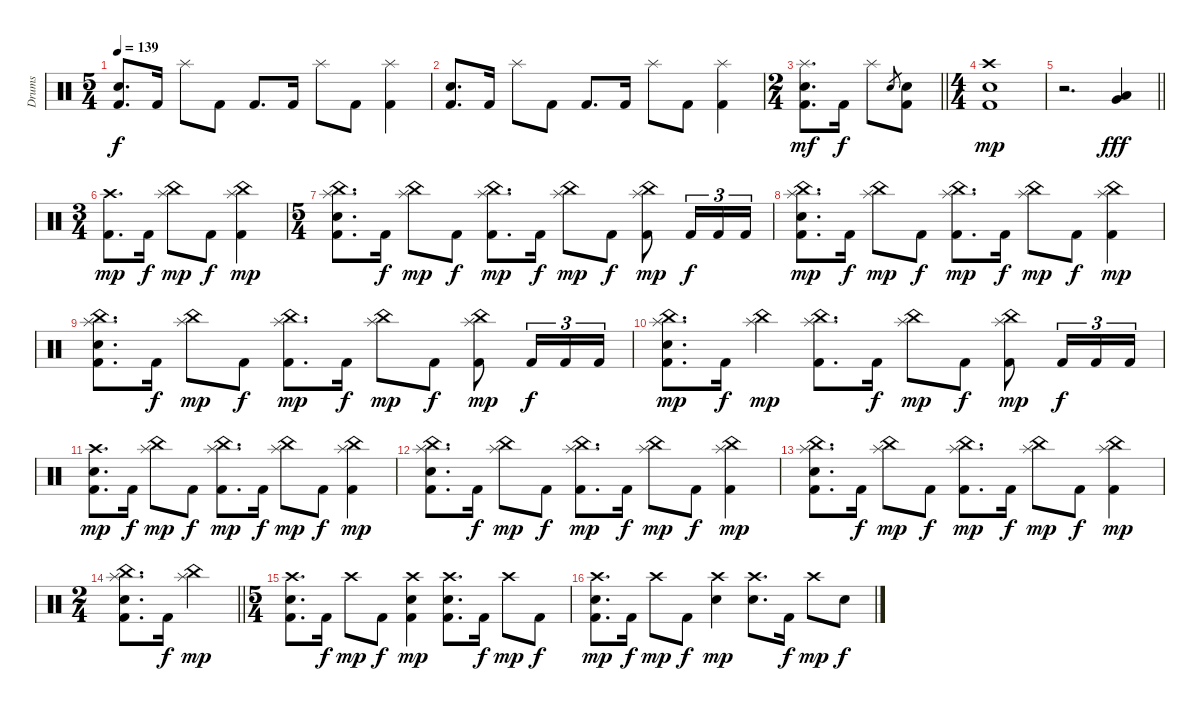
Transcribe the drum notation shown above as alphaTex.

\track ("Drums" "Drums") {instrument percussion}
\staff {score}
\articulation defaults
\ts (5 4)
\tempo 139
\clef neutral
\ks c
("Snare (hit) 2" "Kick (hit) 2").8{d dy f} "Kick (hit) 2".16 "Splash (hit)".8 "Kick (hit) 2".8 "Kick (hit) 2".8{d} "Kick (hit) 2".16 "Splash (hit)".8 "Kick (hit) 2".8 ("Splash (hit)" "Kick (hit) 2").4 |
("Snare (hit) 2" "Kick (hit) 2").8{d} "Kick (hit) 2".16 "Splash (hit)".8 "Kick (hit) 2".8 "Kick (hit) 2".8{d} "Kick (hit) 2".16 "Splash (hit)".8 "Kick (hit) 2".8 ("Splash (hit)" "Kick (hit) 2").4 |
\ts (2 4)
\barLineRight lightlight
("Splash (hit)" "Snare (hit) 2" "Kick (hit) 2").8{d dy mf} "Kick (hit) 2".16{dy f} "Splash (hit)".8 "Snare (hit) 2".8{gr} ("Snare (hit) 2" "Kick (hit) 2").8 |
\ts (4 4)
("Crash high (hit)" "Snare (hit) 2" "Kick (hit) 2").1{dy mp} |
\barLineRight lightlight
r.2{d} ("Very Low Tom (hit)" "Low Floor Tom (hit)").4{bd 60 dy fff} |
\ts (3 4)
("Crash high (hit)" "Kick (hit) 2").8{d dy mp} "Kick (hit) 2".16{dy f} ("China (hit)" "Splash (hit)").8{dy mp} "Kick (hit) 2".8{dy f} ("China (hit)" "Splash (hit)" "Kick (hit) 2").4{dy mp} |
\ts (5 4)
("China (hit)" "Splash (hit)" "Snare (hit) 2" "Kick (hit) 2").8{d} "Kick (hit) 2".16{dy f} ("China (hit)" "Splash (hit)").8{dy mp} "Kick (hit) 2".8{dy f} ("China (hit)" "Splash (hit)" "Kick (hit) 2").8{d dy mp} "Kick (hit) 2".16{dy f} ("China (hit)" "Splash (hit)").8{dy mp} "Kick (hit) 2".8{dy f} ("China (hit)" "Splash (hit)" "Kick (hit) 2").8{dy mp} "Kick (hit) 2".16{tu (3 2) dy f} "Kick (hit) 2".16{tu (3 2)} "Kick (hit) 2".16{tu (3 2)} |
("China (hit)" "Splash (hit)" "Snare (hit) 2" "Kick (hit) 2").8{d dy mp} "Kick (hit) 2".16{dy f} ("China (hit)" "Splash (hit)").8{dy mp} "Kick (hit) 2".8{dy f} ("China (hit)" "Splash (hit)" "Kick (hit) 2").8{d dy mp} "Kick (hit) 2".16{dy f} ("China (hit)" "Splash (hit)").8{dy mp} "Kick (hit) 2".8{dy f} ("China (hit)" "Splash (hit)" "Kick (hit) 2").4{dy mp} |
("China (hit)" "Splash (hit)" "Snare (hit) 2" "Kick (hit) 2").8{d} "Kick (hit) 2".16{dy f} ("China (hit)" "Splash (hit)").8{dy mp} "Kick (hit) 2".8{dy f} ("China (hit)" "Splash (hit)" "Kick (hit) 2").8{d dy mp} "Kick (hit) 2".16{dy f} ("China (hit)" "Splash (hit)").8{dy mp} "Kick (hit) 2".8{dy f} ("China (hit)" "Splash (hit)" "Kick (hit) 2").8{dy mp} "Kick (hit) 2".16{tu (3 2) dy f} "Kick (hit) 2".16{tu (3 2)} "Kick (hit) 2".16{tu (3 2)} |
("China (hit)" "Splash (hit)" "Snare (hit) 2" "Kick (hit) 2").8{d dy mp} "Kick (hit) 2".16{dy f} ("China (hit)" "Splash (hit)").4{dy mp} ("China (hit)" "Splash (hit)" "Kick (hit) 2").8{d} "Kick (hit) 2".16{dy f} ("China (hit)" "Splash (hit)").8{dy mp} "Kick (hit) 2".8{dy f} ("China (hit)" "Splash (hit)" "Kick (hit) 2").8{dy mp} "Kick (hit) 2".16{tu (3 2) dy f} "Kick (hit) 2".16{tu (3 2)} "Kick (hit) 2".16{tu (3 2)} |
("Crash high (hit)" "Snare (hit) 2" "Kick (hit) 2").8{d dy mp} "Kick (hit) 2".16{dy f} ("China (hit)" "Splash (hit)").8{dy mp} "Kick (hit) 2".8{dy f} ("China (hit)" "Splash (hit)" "Kick (hit) 2").8{d dy mp} "Kick (hit) 2".16{dy f} ("China (hit)" "Splash (hit)").8{dy mp} "Kick (hit) 2".8{dy f} ("China (hit)" "Splash (hit)" "Kick (hit) 2").4{dy mp} |
("China (hit)" "Splash (hit)" "Snare (hit) 2" "Kick (hit) 2").8{d} "Kick (hit) 2".16{dy f} ("China (hit)" "Splash (hit)").8{dy mp} "Kick (hit) 2".8{dy f} ("China (hit)" "Splash (hit)" "Kick (hit) 2").8{d dy mp} "Kick (hit) 2".16{dy f} ("China (hit)" "Splash (hit)").8{dy mp} "Kick (hit) 2".8{dy f} ("China (hit)" "Splash (hit)" "Kick (hit) 2").4{dy mp} |
("China (hit)" "Splash (hit)" "Snare (hit) 2" "Kick (hit) 2").8{d} "Kick (hit) 2".16{dy f} ("China (hit)" "Splash (hit)").8{dy mp} "Kick (hit) 2".8{dy f} ("China (hit)" "Splash (hit)" "Kick (hit) 2").8{d dy mp} "Kick (hit) 2".16{dy f} ("China (hit)" "Splash (hit)").8{dy mp} "Kick (hit) 2".8{dy f} ("China (hit)" "Splash (hit)" "Kick (hit) 2").4{dy mp} |
\ts (2 4)
\barLineRight lightlight
("China (hit)" "Splash (hit)" "Snare (hit) 2" "Kick (hit) 2").8{d} "Kick (hit) 2".16{dy f} ("China (hit)" "Splash (hit)").4{dy mp} |
\ts (5 4)
("Crash high (hit)" "Snare (hit) 2" "Kick (hit) 2").8{d} "Kick (hit) 2".16{dy f} "Crash high (hit)".8{dy mp} "Kick (hit) 2".8{dy f} ("Crash high (hit)" "Snare (hit) 2" "Kick (hit) 2").4{dy mp} ("Crash high (hit)" "Snare (hit) 2" "Kick (hit) 2").8{d} "Kick (hit) 2".16{dy f} "Crash high (hit)".8{dy mp} "Kick (hit) 2".8{dy f} |
("Crash high (hit)" "Snare (hit) 2" "Kick (hit) 2").8{d dy mp} "Kick (hit) 2".16{dy f} "Crash high (hit)".8{dy mp} "Kick (hit) 2".8{dy f} ("Crash high (hit)" "Snare (hit) 2").4{dy mp} ("Crash high (hit)" "Snare (hit) 2").8{d} "Kick (hit) 2".16{dy f} "Crash high (hit)".8{dy mp} "Snare (hit) 2".8{dy f}
